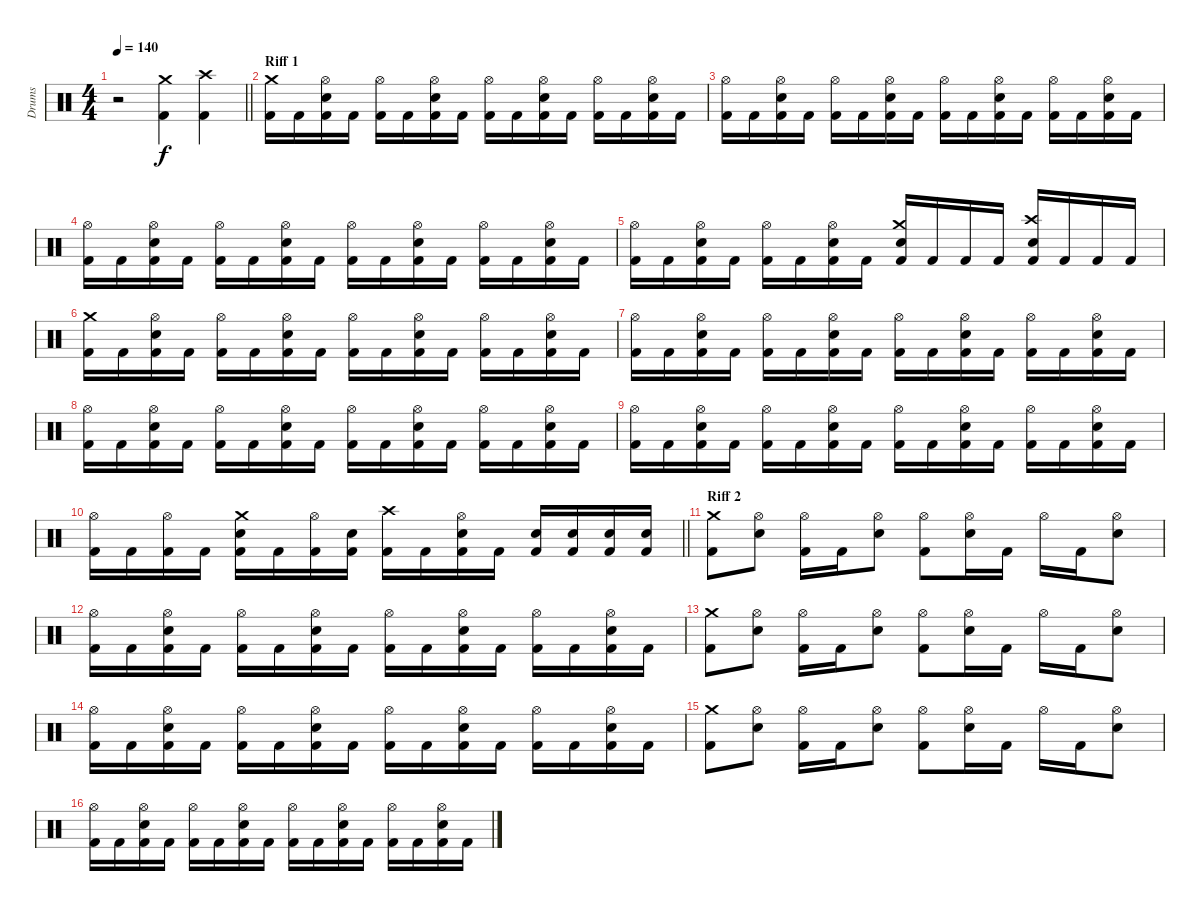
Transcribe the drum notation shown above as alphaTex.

\track ("Drums" "Drums") {instrument percussion}
\staff {score}
\articulation defaults
\ts (4 4)
\tempo 140
\clef neutral
\barLineRight lightlight
\ks c
r.2{dy f} ("Kick (hit) 2" "Crash medium (hit)").4 ("Kick (hit) 2" "Crash high (hit)").4 |
\section ("" "Riff 1")
("Crash medium (hit)" "Kick (hit) 2").16 "Kick (hit) 2".16 ("Electric Snare (hit)" "Hi-Hat (open)" "Kick (hit) 2").16 "Kick (hit) 2".16 ("Hi-Hat (open)" "Kick (hit) 2").16 "Kick (hit) 2".16 ("Electric Snare (hit)" "Hi-Hat (open)" "Kick (hit) 2").16 "Kick (hit) 2".16 ("Hi-Hat (open)" "Kick (hit) 2").16 "Kick (hit) 2".16 ("Electric Snare (hit)" "Hi-Hat (open)" "Kick (hit) 2").16 "Kick (hit) 2".16 ("Hi-Hat (open)" "Kick (hit) 2").16 "Kick (hit) 2".16 ("Kick (hit) 2" "Electric Snare (hit)" "Hi-Hat (open)").16 "Kick (hit) 2".16 |
("Hi-Hat (open)" "Kick (hit) 2").16 "Kick (hit) 2".16 ("Electric Snare (hit)" "Hi-Hat (open)" "Kick (hit) 2").16 "Kick (hit) 2".16 ("Hi-Hat (open)" "Kick (hit) 2").16 "Kick (hit) 2".16 ("Kick (hit) 2" "Electric Snare (hit)" "Hi-Hat (open)").16 "Kick (hit) 2".16 ("Hi-Hat (open)" "Kick (hit) 2").16 "Kick (hit) 2".16 ("Electric Snare (hit)" "Hi-Hat (open)" "Kick (hit) 2").16 "Kick (hit) 2".16 ("Hi-Hat (open)" "Kick (hit) 2").16 "Kick (hit) 2".16 ("Kick (hit) 2" "Electric Snare (hit)" "Hi-Hat (open)").16 "Kick (hit) 2".16 |
("Hi-Hat (open)" "Kick (hit) 2").16 "Kick (hit) 2".16 ("Electric Snare (hit)" "Hi-Hat (open)" "Kick (hit) 2").16 "Kick (hit) 2".16 ("Hi-Hat (open)" "Kick (hit) 2").16 "Kick (hit) 2".16 ("Kick (hit) 2" "Electric Snare (hit)" "Hi-Hat (open)").16 "Kick (hit) 2".16 ("Hi-Hat (open)" "Kick (hit) 2").16 "Kick (hit) 2".16 ("Electric Snare (hit)" "Hi-Hat (open)" "Kick (hit) 2").16 "Kick (hit) 2".16 ("Hi-Hat (open)" "Kick (hit) 2").16 "Kick (hit) 2".16 ("Kick (hit) 2" "Electric Snare (hit)" "Hi-Hat (open)").16 "Kick (hit) 2".16 |
("Hi-Hat (open)" "Kick (hit) 2").16 "Kick (hit) 2".16 ("Electric Snare (hit)" "Hi-Hat (open)" "Kick (hit) 2").16 "Kick (hit) 2".16 ("Hi-Hat (open)" "Kick (hit) 2").16 "Kick (hit) 2".16 ("Kick (hit) 2" "Electric Snare (hit)" "Hi-Hat (open)").16 "Kick (hit) 2".16 ("Electric Snare (hit)" "Crash medium (hit)" "Kick (hit) 2").16 "Kick (hit) 2".16 "Kick (hit) 2".16 "Kick (hit) 2".16 ("Electric Snare (hit)" "Crash high (hit)" "Kick (hit) 2").16 "Kick (hit) 2".16 "Kick (hit) 2".16 "Kick (hit) 2".16 |
("Crash medium (hit)" "Kick (hit) 2").16 "Kick (hit) 2".16 ("Electric Snare (hit)" "Hi-Hat (open)" "Kick (hit) 2").16 "Kick (hit) 2".16 ("Hi-Hat (open)" "Kick (hit) 2").16 "Kick (hit) 2".16 ("Electric Snare (hit)" "Hi-Hat (open)" "Kick (hit) 2").16 "Kick (hit) 2".16 ("Hi-Hat (open)" "Kick (hit) 2").16 "Kick (hit) 2".16 ("Electric Snare (hit)" "Hi-Hat (open)" "Kick (hit) 2").16 "Kick (hit) 2".16 ("Hi-Hat (open)" "Kick (hit) 2").16 "Kick (hit) 2".16 ("Kick (hit) 2" "Electric Snare (hit)" "Hi-Hat (open)").16 "Kick (hit) 2".16 |
("Hi-Hat (open)" "Kick (hit) 2").16 "Kick (hit) 2".16 ("Electric Snare (hit)" "Hi-Hat (open)" "Kick (hit) 2").16 "Kick (hit) 2".16 ("Hi-Hat (open)" "Kick (hit) 2").16 "Kick (hit) 2".16 ("Kick (hit) 2" "Electric Snare (hit)" "Hi-Hat (open)").16 "Kick (hit) 2".16 ("Hi-Hat (open)" "Kick (hit) 2").16 "Kick (hit) 2".16 ("Electric Snare (hit)" "Hi-Hat (open)" "Kick (hit) 2").16 "Kick (hit) 2".16 ("Hi-Hat (open)" "Kick (hit) 2").16 "Kick (hit) 2".16 ("Kick (hit) 2" "Electric Snare (hit)" "Hi-Hat (open)").16 "Kick (hit) 2".16 |
("Hi-Hat (open)" "Kick (hit) 2").16 "Kick (hit) 2".16 ("Electric Snare (hit)" "Hi-Hat (open)" "Kick (hit) 2").16 "Kick (hit) 2".16 ("Hi-Hat (open)" "Kick (hit) 2").16 "Kick (hit) 2".16 ("Kick (hit) 2" "Electric Snare (hit)" "Hi-Hat (open)").16 "Kick (hit) 2".16 ("Hi-Hat (open)" "Kick (hit) 2").16 "Kick (hit) 2".16 ("Electric Snare (hit)" "Hi-Hat (open)" "Kick (hit) 2").16 "Kick (hit) 2".16 ("Hi-Hat (open)" "Kick (hit) 2").16 "Kick (hit) 2".16 ("Kick (hit) 2" "Electric Snare (hit)" "Hi-Hat (open)").16 "Kick (hit) 2".16 |
("Hi-Hat (open)" "Kick (hit) 2").16 "Kick (hit) 2".16 ("Electric Snare (hit)" "Hi-Hat (open)" "Kick (hit) 2").16 "Kick (hit) 2".16 ("Hi-Hat (open)" "Kick (hit) 2").16 "Kick (hit) 2".16 ("Kick (hit) 2" "Electric Snare (hit)" "Hi-Hat (open)").16 "Kick (hit) 2".16 ("Hi-Hat (open)" "Kick (hit) 2").16 "Kick (hit) 2".16 ("Electric Snare (hit)" "Hi-Hat (open)" "Kick (hit) 2").16 "Kick (hit) 2".16 ("Hi-Hat (open)" "Kick (hit) 2").16 "Kick (hit) 2".16 ("Kick (hit) 2" "Electric Snare (hit)" "Hi-Hat (open)").16 "Kick (hit) 2".16 |
\barLineRight lightlight
("Hi-Hat (open)" "Kick (hit) 2").16 "Kick (hit) 2".16 ("Hi-Hat (open)" "Kick (hit) 2").16 "Kick (hit) 2".16 ("Electric Snare (hit)" "Crash medium (hit)" "Kick (hit) 2").16 "Kick (hit) 2".16 ("Hi-Hat (open)" "Kick (hit) 2").16 ("Electric Snare (hit)" "Kick (hit) 2").16 ("Crash high (hit)" "Kick (hit) 2").16 "Kick (hit) 2".16 ("Electric Snare (hit)" "Hi-Hat (open)" "Kick (hit) 2").16 "Kick (hit) 2".16 ("Electric Snare (hit)" "Kick (hit) 2").16 ("Electric Snare (hit)" "Kick (hit) 2").16 ("Electric Snare (hit)" "Kick (hit) 2").16 ("Electric Snare (hit)" "Kick (hit) 2").16 |
\section ("" "Riff 2")
("Crash medium (hit)" "Kick (hit) 2").8 ("Hi-Hat (open)" "Electric Snare (hit)").8 ("Kick (hit) 2" "Hi-Hat (open)").16 "Kick (hit) 2".16 ("Hi-Hat (open)" "Electric Snare (hit)").8 ("Kick (hit) 2" "Hi-Hat (open)").8 ("Electric Snare (hit)" "Hi-Hat (open)").16 "Kick (hit) 2".16 "Hi-Hat (open)".16 "Kick (hit) 2".16 ("Electric Snare (hit)" "Hi-Hat (open)").8 |
("Hi-Hat (open)" "Kick (hit) 2").16 "Kick (hit) 2".16 ("Hi-Hat (open)" "Electric Snare (hit)" "Kick (hit) 2").16 "Kick (hit) 2".16 ("Hi-Hat (open)" "Kick (hit) 2").16 "Kick (hit) 2".16 ("Hi-Hat (open)" "Electric Snare (hit)" "Kick (hit) 2").16 "Kick (hit) 2".16 ("Hi-Hat (open)" "Kick (hit) 2").16 "Kick (hit) 2".16 ("Hi-Hat (open)" "Electric Snare (hit)" "Kick (hit) 2").16 "Kick (hit) 2".16 ("Hi-Hat (open)" "Kick (hit) 2").16 "Kick (hit) 2".16 ("Hi-Hat (open)" "Electric Snare (hit)" "Kick (hit) 2").16 "Kick (hit) 2".16 |
("Crash medium (hit)" "Kick (hit) 2").8 ("Hi-Hat (open)" "Electric Snare (hit)").8 ("Kick (hit) 2" "Hi-Hat (open)").16 "Kick (hit) 2".16 ("Hi-Hat (open)" "Electric Snare (hit)").8 ("Kick (hit) 2" "Hi-Hat (open)").8 ("Electric Snare (hit)" "Hi-Hat (open)").16 "Kick (hit) 2".16 "Hi-Hat (open)".16 "Kick (hit) 2".16 ("Electric Snare (hit)" "Hi-Hat (open)").8 |
("Hi-Hat (open)" "Kick (hit) 2").16 "Kick (hit) 2".16 ("Hi-Hat (open)" "Electric Snare (hit)" "Kick (hit) 2").16 "Kick (hit) 2".16 ("Hi-Hat (open)" "Kick (hit) 2").16 "Kick (hit) 2".16 ("Hi-Hat (open)" "Electric Snare (hit)" "Kick (hit) 2").16 "Kick (hit) 2".16 ("Hi-Hat (open)" "Kick (hit) 2").16 "Kick (hit) 2".16 ("Hi-Hat (open)" "Electric Snare (hit)" "Kick (hit) 2").16 "Kick (hit) 2".16 ("Hi-Hat (open)" "Kick (hit) 2").16 "Kick (hit) 2".16 ("Hi-Hat (open)" "Electric Snare (hit)" "Kick (hit) 2").16 "Kick (hit) 2".16 |
("Crash medium (hit)" "Kick (hit) 2").8 ("Hi-Hat (open)" "Electric Snare (hit)").8 ("Kick (hit) 2" "Hi-Hat (open)").16 "Kick (hit) 2".16 ("Hi-Hat (open)" "Electric Snare (hit)").8 ("Kick (hit) 2" "Hi-Hat (open)").8 ("Electric Snare (hit)" "Hi-Hat (open)").16 "Kick (hit) 2".16 "Hi-Hat (open)".16 "Kick (hit) 2".16 ("Electric Snare (hit)" "Hi-Hat (open)").8 |
("Hi-Hat (open)" "Kick (hit) 2").16 "Kick (hit) 2".16 ("Hi-Hat (open)" "Electric Snare (hit)" "Kick (hit) 2").16 "Kick (hit) 2".16 ("Hi-Hat (open)" "Kick (hit) 2").16 "Kick (hit) 2".16 ("Hi-Hat (open)" "Electric Snare (hit)" "Kick (hit) 2").16 "Kick (hit) 2".16 ("Hi-Hat (open)" "Kick (hit) 2").16 "Kick (hit) 2".16 ("Hi-Hat (open)" "Electric Snare (hit)" "Kick (hit) 2").16 "Kick (hit) 2".16 ("Hi-Hat (open)" "Kick (hit) 2").16 "Kick (hit) 2".16 ("Hi-Hat (open)" "Electric Snare (hit)" "Kick (hit) 2").16 "Kick (hit) 2".16
